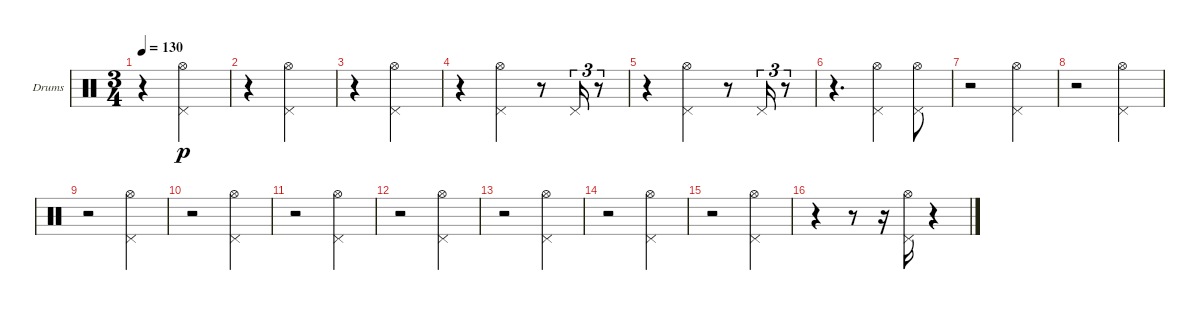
\bracketExtendMode groupsimilarinstruments
\firstSystemTrackNameOrientation horizontal
\otherSystemsTrackNameOrientation horizontal
\track ("HH" "Drums") {instrument percussion}
\staff {score}
\articulation defaults
\ts (3 4)
\tempo 130
\clef neutral
\ks c
r.4{dy p} ("Pedal Hi-Hat (hit)" "Hi-Hat (open)").2 |
r.4 ("Pedal Hi-Hat (hit)" "Hi-Hat (open)").2 |
r.4 ("Pedal Hi-Hat (hit)" "Hi-Hat (open)").2 |
r.4 ("Pedal Hi-Hat (hit)" "Hi-Hat (open)").4 r.8 "Pedal Hi-Hat (hit)".16{tu (3 2)} r.8{tu (3 2)} |
r.4 ("Pedal Hi-Hat (hit)" "Hi-Hat (open)").4 r.8 "Pedal Hi-Hat (hit)".16{tu (3 2)} r.8{tu (3 2)} |
r.4{d} ("Pedal Hi-Hat (hit)" "Hi-Hat (open)").4 ("Pedal Hi-Hat (hit)" "Hi-Hat (open)").8 |
r.2 ("Pedal Hi-Hat (hit)" "Hi-Hat (open)").4 |
r.2 ("Pedal Hi-Hat (hit)" "Hi-Hat (open)").4 |
r.2 ("Pedal Hi-Hat (hit)" "Hi-Hat (open)").4 |
r.2 ("Pedal Hi-Hat (hit)" "Hi-Hat (open)").4 |
r.2 ("Pedal Hi-Hat (hit)" "Hi-Hat (open)").4 |
r.2 ("Pedal Hi-Hat (hit)" "Hi-Hat (open)").4 |
r.2 ("Pedal Hi-Hat (hit)" "Hi-Hat (open)").4 |
r.2 ("Pedal Hi-Hat (hit)" "Hi-Hat (open)").4 |
r.2 ("Pedal Hi-Hat (hit)" "Hi-Hat (open)").4 |
r.4 r.8 r.16 ("Pedal Hi-Hat (hit)" "Hi-Hat (open)").16 r.4
